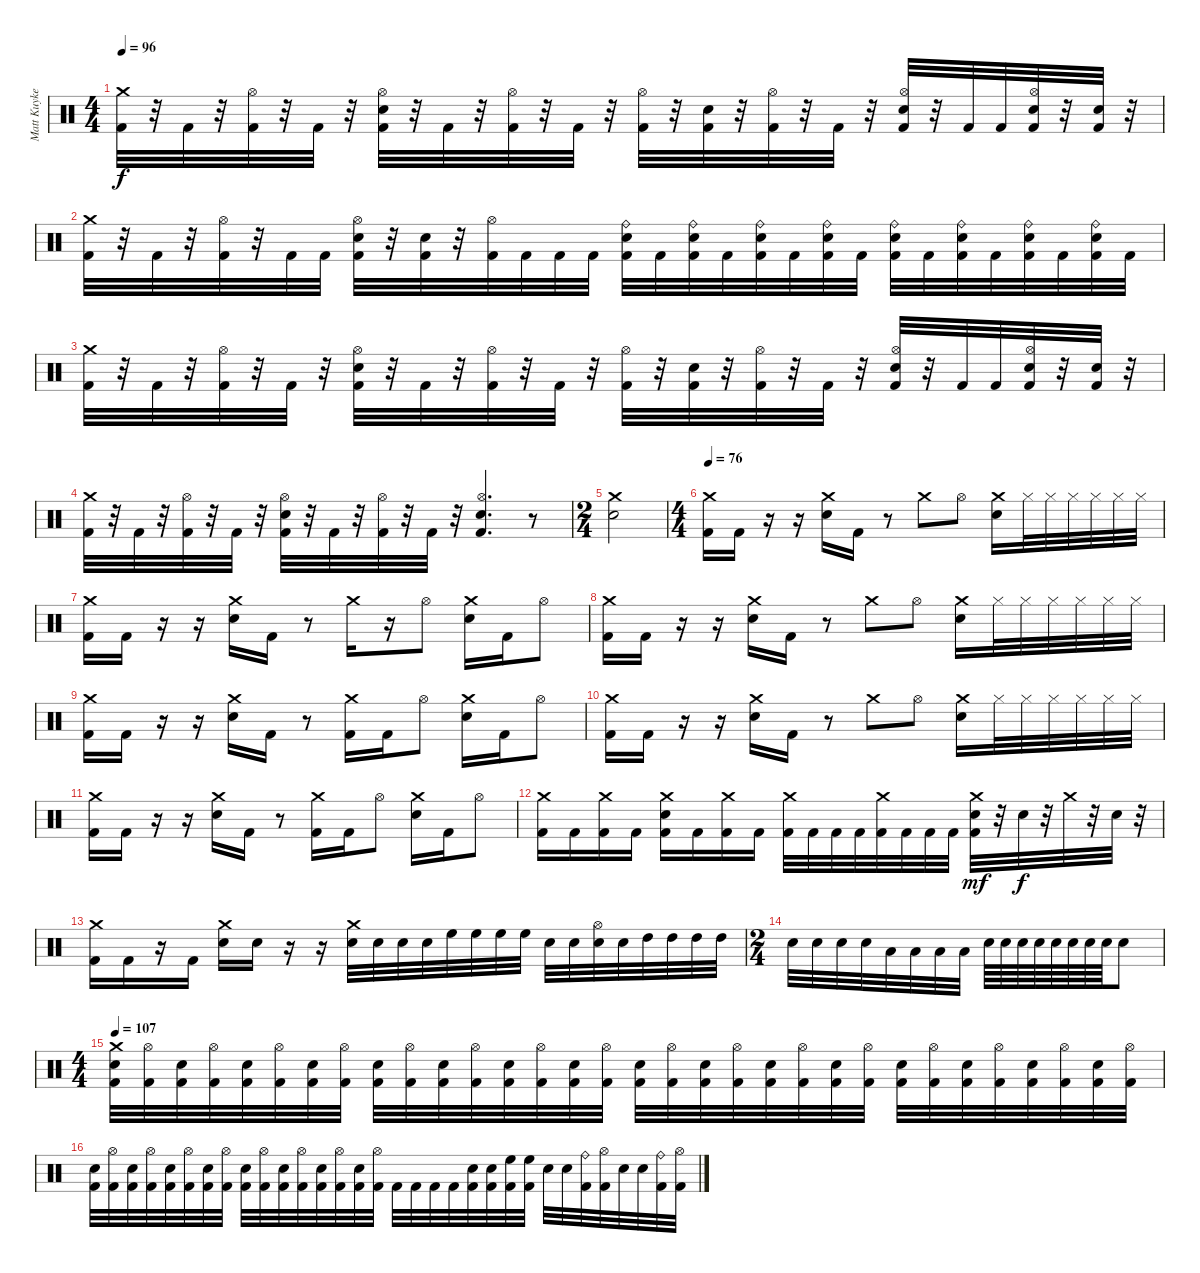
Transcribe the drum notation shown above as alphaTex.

\track ("Matt Kuykendall" "Matt Kuyke") {instrument percussion}
\staff {score}
\articulation defaults
\ts (4 4)
\tempo 96
\clef neutral
\ks c
("Crash medium (hit)" "Kick (hit) 2").32{dy f} r.32 "Kick (hit) 2".32 r.32 ("Hi-Hat (open)" "Kick (hit) 2").32 r.32 "Kick (hit) 2".32 r.32 ("Hi-Hat (open)" "Electric Snare (hit)" "Kick (hit) 2").32 r.32 "Kick (hit) 2".32 r.32 ("Hi-Hat (open)" "Kick (hit) 2").32 r.32 "Kick (hit) 2".32 r.32 ("Hi-Hat (open)" "Kick (hit) 2").32 r.32 ("Electric Snare (hit)" "Kick (hit) 2").32 r.32 ("Hi-Hat (open)" "Kick (hit) 2").32 r.32 "Kick (hit) 2".32 r.32 ("Hi-Hat (open)" "Electric Snare (hit)" "Kick (hit) 2").32 r.32 "Kick (hit) 2".32 "Kick (hit) 2".32 ("Hi-Hat (open)" "Electric Snare (hit)" "Kick (hit) 2").32 r.32 ("Electric Snare (hit)" "Kick (hit) 2").32 r.32 |
("Crash medium (hit)" "Kick (hit) 2").32 r.32 "Kick (hit) 2".32 r.32 ("Hi-Hat (open)" "Kick (hit) 2").32 r.32 "Kick (hit) 2".32 "Kick (hit) 2".32 ("Hi-Hat (open)" "Electric Snare (hit)" "Kick (hit) 2").32 r.32 ("Electric Snare (hit)" "Kick (hit) 2").32 r.32 ("Hi-Hat (open)" "Kick (hit) 2").32 "Kick (hit) 2".32 "Kick (hit) 2".32 "Kick (hit) 2".32 ("Ride (bell)" "Electric Snare (hit)" "Kick (hit) 2").32 "Kick (hit) 2".32 ("Ride (bell)" "Electric Snare (hit)" "Kick (hit) 2").32 "Kick (hit) 2".32 ("Ride (bell)" "Electric Snare (hit)" "Kick (hit) 2").32 "Kick (hit) 2".32 ("Ride (bell)" "Electric Snare (hit)" "Kick (hit) 2").32 "Kick (hit) 2".32 ("Ride (bell)" "Electric Snare (hit)" "Kick (hit) 2").32 "Kick (hit) 2".32 ("Ride (bell)" "Electric Snare (hit)" "Kick (hit) 2").32 "Kick (hit) 2".32 ("Ride (bell)" "Electric Snare (hit)" "Kick (hit) 2").32 "Kick (hit) 2".32 ("Ride (bell)" "Electric Snare (hit)" "Kick (hit) 2").32 "Kick (hit) 2".32 |
("Crash medium (hit)" "Kick (hit) 2").32 r.32 "Kick (hit) 2".32 r.32 ("Hi-Hat (open)" "Kick (hit) 2").32 r.32 "Kick (hit) 2".32 r.32 ("Hi-Hat (open)" "Electric Snare (hit)" "Kick (hit) 2").32 r.32 "Kick (hit) 2".32 r.32 ("Hi-Hat (open)" "Kick (hit) 2").32 r.32 "Kick (hit) 2".32 r.32 ("Hi-Hat (open)" "Kick (hit) 2").32 r.32 ("Electric Snare (hit)" "Kick (hit) 2").32 r.32 ("Hi-Hat (open)" "Kick (hit) 2").32 r.32 "Kick (hit) 2".32 r.32 ("Hi-Hat (open)" "Electric Snare (hit)" "Kick (hit) 2").32 r.32 "Kick (hit) 2".32 "Kick (hit) 2".32 ("Hi-Hat (open)" "Electric Snare (hit)" "Kick (hit) 2").32 r.32 ("Electric Snare (hit)" "Kick (hit) 2").32 r.32 |
("Crash medium (hit)" "Kick (hit) 2").32 r.32 "Kick (hit) 2".32 r.32 ("Hi-Hat (open)" "Kick (hit) 2").32 r.32 "Kick (hit) 2".32 r.32 ("Hi-Hat (open)" "Electric Snare (hit)" "Kick (hit) 2").32 r.32 "Kick (hit) 2".32 r.32 ("Hi-Hat (open)" "Kick (hit) 2").32 r.32 "Kick (hit) 2".32 r.32 ("Hi-Hat (open)" "Electric Snare (hit)" "Kick (hit) 2").4{d} r.8 |
\ts (2 4)
("Crash medium (hit)" "Electric Snare (hit)").2 |
\ts (4 4)
\tempo 76
("Crash medium (hit)" "Kick (hit) 2").16 "Kick (hit) 2".16 r.16 r.16 ("Crash medium (hit)" "Electric Snare (hit)").16 "Kick (hit) 2".16 r.8 "Crash medium (hit)".8 "Hi-Hat (open)".8 ("Crash medium (hit)" "Electric Snare (hit)").16 "Hi-Hat (closed)".32 "Hi-Hat (closed)".32 "Hi-Hat (closed)".32 "Hi-Hat (closed)".32 "Hi-Hat (closed)".32 "Hi-Hat (closed)".32 |
("Crash medium (hit)" "Kick (hit) 2").16 "Kick (hit) 2".16 r.16 r.16 ("Crash medium (hit)" "Electric Snare (hit)").16 "Kick (hit) 2".16 r.8 "Crash medium (hit)".16 r.16 "Hi-Hat (open)".8 ("Crash medium (hit)" "Electric Snare (hit)").16 "Kick (hit) 2".16 "Hi-Hat (open)".8 |
("Crash medium (hit)" "Kick (hit) 2").16 "Kick (hit) 2".16 r.16 r.16 ("Crash medium (hit)" "Electric Snare (hit)").16 "Kick (hit) 2".16 r.8 "Crash medium (hit)".8 "Hi-Hat (open)".8 ("Crash medium (hit)" "Electric Snare (hit)").16 "Hi-Hat (closed)".32 "Hi-Hat (closed)".32 "Hi-Hat (closed)".32 "Hi-Hat (closed)".32 "Hi-Hat (closed)".32 "Hi-Hat (closed)".32 |
("Crash medium (hit)" "Kick (hit) 2").16 "Kick (hit) 2".16 r.16 r.16 ("Crash medium (hit)" "Electric Snare (hit)").16 "Kick (hit) 2".16 r.8 ("Crash medium (hit)" "Kick (hit) 2").16 "Kick (hit) 2".16 "Hi-Hat (open)".8 ("Crash medium (hit)" "Electric Snare (hit)").16 "Kick (hit) 2".16 "Hi-Hat (open)".8 |
("Crash medium (hit)" "Kick (hit) 2").16 "Kick (hit) 2".16 r.16 r.16 ("Crash medium (hit)" "Electric Snare (hit)").16 "Kick (hit) 2".16 r.8 "Crash medium (hit)".8 "Hi-Hat (open)".8 ("Crash medium (hit)" "Electric Snare (hit)").16 "Hi-Hat (closed)".32 "Hi-Hat (closed)".32 "Hi-Hat (closed)".32 "Hi-Hat (closed)".32 "Hi-Hat (closed)".32 "Hi-Hat (closed)".32 |
("Crash medium (hit)" "Kick (hit) 2").16 "Kick (hit) 2".16 r.16 r.16 ("Crash medium (hit)" "Electric Snare (hit)").16 "Kick (hit) 2".16 r.8 ("Crash medium (hit)" "Kick (hit) 2").16 "Kick (hit) 2".16 "Hi-Hat (open)".8 ("Crash medium (hit)" "Electric Snare (hit)").16 "Kick (hit) 2".16 "Hi-Hat (open)".8 |
("Crash medium (hit)" "Kick (hit) 2").16 "Kick (hit) 2".16 ("Crash medium (hit)" "Kick (hit) 2").16 "Kick (hit) 2".16 ("Crash medium (hit)" "Electric Snare (hit)" "Kick (hit) 2").16 "Kick (hit) 2".16 ("Crash medium (hit)" "Kick (hit) 2").16 "Kick (hit) 2".16 ("Crash medium (hit)" "Kick (hit) 2").32 "Kick (hit) 2".32 "Kick (hit) 2".32 "Kick (hit) 2".32 ("Crash medium (hit)" "Kick (hit) 2").32 "Kick (hit) 2".32 "Kick (hit) 2".32 "Kick (hit) 2".32 ("Crash medium (hit)" "Electric Snare (hit)" "Kick (hit) 2").32{dy mf} r.32 "Electric Snare (hit)".32{dy f} r.32 "Crash medium (hit)".32 r.32 "Electric Snare (hit)".32 r.32 |
("Crash medium (hit)" "Kick (hit) 2").16 "Kick (hit) 2".16 r.16 "Kick (hit) 2".16 ("Crash medium (hit)" "Electric Snare (hit)").16 "Electric Snare (hit)".16 r.16 r.16 ("Crash medium (hit)" "Electric Snare (hit)").32 "Electric Snare (hit)".32 "Electric Snare (hit)".32 "Electric Snare (hit)".32 "High Floor Tom (hit)".32 "High Floor Tom (hit)".32 "High Floor Tom (hit)".32 "High Floor Tom (hit)".32 "Electric Snare (hit)".32 "Electric Snare (hit)".32 ("Hi-Hat (open)" "Electric Snare (hit)").32 "Electric Snare (hit)".32 "High Tom (hit)".32 "High Tom (hit)".32 "High Tom (hit)".32 "High Tom (hit)".32 |
\ts (2 4)
"Electric Snare (hit)".32 "Electric Snare (hit)".32 "Electric Snare (hit)".32 "Electric Snare (hit)".32 "Low Tom (hit)".32 "Low Tom (hit)".32 "Low Tom (hit)".32 "Low Tom (hit)".32 "Electric Snare (hit)".64 "Electric Snare (hit)".64 "Electric Snare (hit)".64 "Electric Snare (hit)".64 "Electric Snare (hit)".64 "Electric Snare (hit)".64 "Electric Snare (hit)".64 "Electric Snare (hit)".64 "Electric Snare (hit)".8 |
\ts (4 4)
\tempo 107
("Crash medium (hit)" "Electric Snare (hit)" "Kick (hit) 2").32 ("Hi-Hat (open)" "Kick (hit) 2").32 ("Electric Snare (hit)" "Kick (hit) 2").32 ("Hi-Hat (open)" "Kick (hit) 2").32 ("Electric Snare (hit)" "Kick (hit) 2").32 ("Hi-Hat (open)" "Kick (hit) 2").32 ("Electric Snare (hit)" "Kick (hit) 2").32 ("Hi-Hat (open)" "Kick (hit) 2").32 ("Electric Snare (hit)" "Kick (hit) 2").32 ("Hi-Hat (open)" "Kick (hit) 2").32 ("Electric Snare (hit)" "Kick (hit) 2").32 ("Hi-Hat (open)" "Kick (hit) 2").32 ("Electric Snare (hit)" "Kick (hit) 2").32 ("Hi-Hat (open)" "Kick (hit) 2").32 ("Electric Snare (hit)" "Kick (hit) 2").32 ("Hi-Hat (open)" "Kick (hit) 2").32 ("Electric Snare (hit)" "Kick (hit) 2").32 ("Hi-Hat (open)" "Kick (hit) 2").32 ("Electric Snare (hit)" "Kick (hit) 2").32 ("Hi-Hat (open)" "Kick (hit) 2").32 ("Electric Snare (hit)" "Kick (hit) 2").32 ("Hi-Hat (open)" "Kick (hit) 2").32 ("Electric Snare (hit)" "Kick (hit) 2").32 ("Hi-Hat (open)" "Kick (hit) 2").32 ("Electric Snare (hit)" "Kick (hit) 2").32 ("Hi-Hat (open)" "Kick (hit) 2").32 ("Electric Snare (hit)" "Kick (hit) 2").32 ("Hi-Hat (open)" "Kick (hit) 2").32 ("Electric Snare (hit)" "Kick (hit) 2").32 ("Hi-Hat (open)" "Kick (hit) 2").32 ("Electric Snare (hit)" "Kick (hit) 2").32 ("Hi-Hat (open)" "Kick (hit) 2").32 |
("Electric Snare (hit)" "Kick (hit) 2").32 ("Hi-Hat (open)" "Kick (hit) 2").32 ("Electric Snare (hit)" "Kick (hit) 2").32 ("Hi-Hat (open)" "Kick (hit) 2").32 ("Electric Snare (hit)" "Kick (hit) 2").32 ("Hi-Hat (open)" "Kick (hit) 2").32 ("Electric Snare (hit)" "Kick (hit) 2").32 ("Hi-Hat (open)" "Kick (hit) 2").32 ("Electric Snare (hit)" "Kick (hit) 2").32 ("Hi-Hat (open)" "Kick (hit) 2").32 ("Electric Snare (hit)" "Kick (hit) 2").32 ("Hi-Hat (open)" "Kick (hit) 2").32 ("Electric Snare (hit)" "Kick (hit) 2").32 ("Hi-Hat (open)" "Kick (hit) 2").32 ("Electric Snare (hit)" "Kick (hit) 2").32 ("Hi-Hat (open)" "Kick (hit) 2").32 "Kick (hit) 2".32 "Kick (hit) 2".32 "Kick (hit) 2".32 "Kick (hit) 2".32 ("Electric Snare (hit)" "Kick (hit) 2").32 ("Electric Snare (hit)" "Kick (hit) 2").32 ("High Floor Tom (hit)" "Kick (hit) 2").32 ("High Floor Tom (hit)" "Kick (hit) 2").32 "Electric Snare (hit)".32 "Electric Snare (hit)".32 ("Ride (bell)" "Kick (hit) 2").32 ("Hi-Hat (open)" "Kick (hit) 2").32 "Electric Snare (hit)".32 "Electric Snare (hit)".32 ("Ride (bell)" "Kick (hit) 2").32 ("Hi-Hat (open)" "Kick (hit) 2").32
